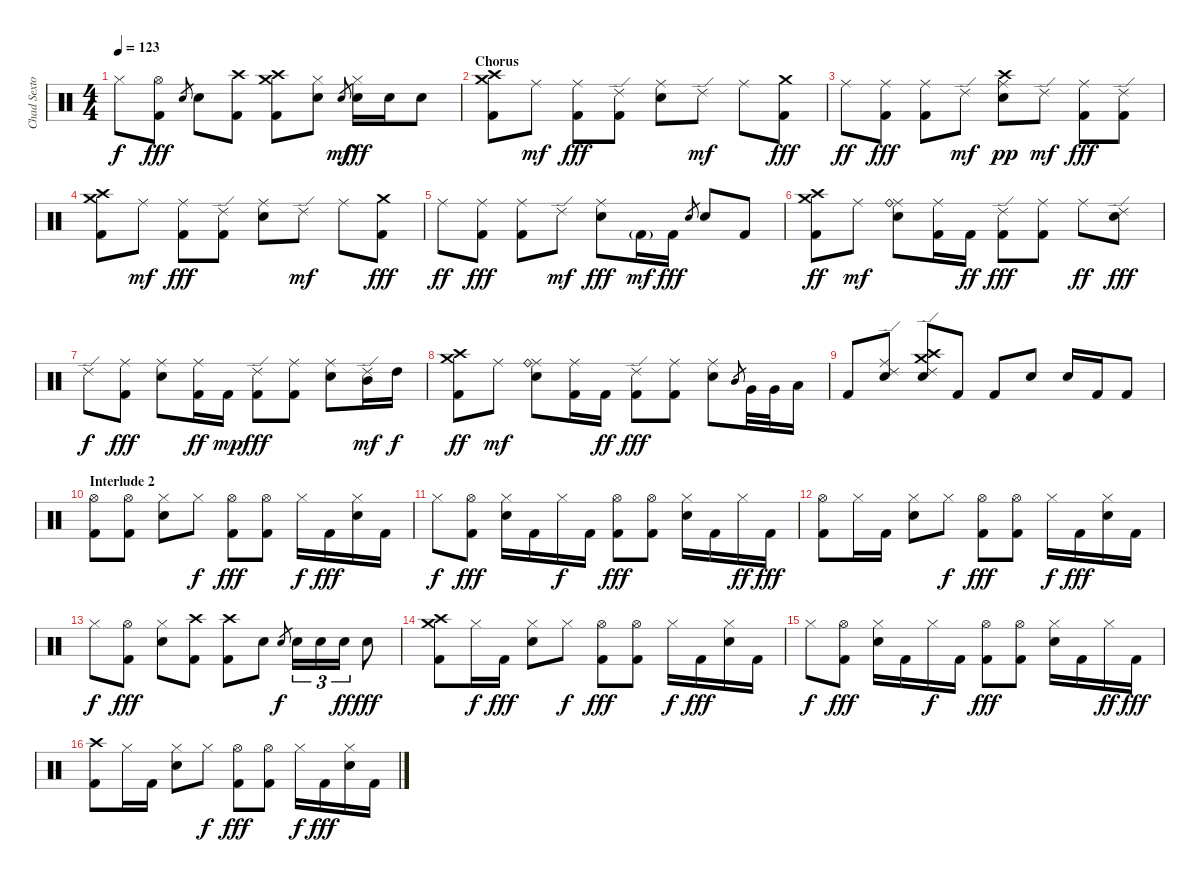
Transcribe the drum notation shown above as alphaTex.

\track ("Chad Sexton (Drums)" "Chad Sexto") {instrument percussion}
\staff {score}
\articulation defaults
\ts (4 4)
\tempo 123
\clef neutral
\ks c "Hi-Hat (closed)".8{dy f}
("Hi-Hat (open)" "Kick (hit) 2").8{dy fff} "Electric Snare (hit)".8{gr} "Electric Snare (hit)".8 ("Crash high (hit)" "Kick (hit) 2").8 ("Crash high (hit)" "Kick (hit) 2" "Crash medium (hit)").8 ("Hi-Hat (closed)" "Electric Snare (hit)").8 "Electric Snare (hit)".8{gr dy mf} ("Hi-Hat (closed)" "Electric Snare (hit)").16{dy fff} "Electric Snare (hit)".16 "Electric Snare (hit)".8 |
\section ("" "Chorus")
("Crash high (hit)" "Kick (hit) 2" "Crash medium (hit)").8{volume 13} "Ride (middle)".8{dy mf} ("Ride (middle)" "Kick (hit) 2").8{dy fff} ("Ride (edge) 2" "Kick (hit) 2").8 ("Ride (middle)" "Electric Snare (hit)").8 "Ride (edge) 2".8{dy mf} "Ride (middle)".8 ("Crash medium (hit)" "Kick (hit) 2").8{dy fff} |
"Ride (middle)".8{dy ff} ("Ride (middle)" "Kick (hit) 2").8{dy fff} ("Ride (middle)" "Kick (hit) 2").8 "Ride (edge) 2".8{dy mf} ("Ride (middle)" "Electric Snare (hit)" "Crash high (hit)").8{dy pp} "Ride (edge) 2".8{dy mf} ("Ride (middle)" "Kick (hit) 2").8{dy fff} ("Ride (edge) 2" "Kick (hit) 2").8 |
("Crash high (hit)" "Kick (hit) 2" "Crash medium (hit)").8 "Ride (middle)".8{dy mf} ("Ride (middle)" "Kick (hit) 2").8{dy fff} ("Ride (edge) 2" "Kick (hit) 2").8 ("Ride (middle)" "Electric Snare (hit)").8 "Ride (edge) 2".8{dy mf} "Ride (middle)".8 ("Crash medium (hit)" "Kick (hit) 2").8{dy fff} |
"Ride (middle)".8{dy ff} ("Ride (middle)" "Kick (hit) 2").8{dy fff} ("Ride (middle)" "Kick (hit) 2").8 "Ride (edge) 2".8{dy mf} ("Ride (middle)" "Electric Snare (hit)").8{dy fff} "Kick (hit) 2"{g}.16{dy mf} "Kick (hit) 2".16{dy fff} "Electric Snare (hit)".8{gr} "Electric Snare (hit)".8 "Kick (hit) 2".8 |
("Crash medium (hit)" "Kick (hit) 2" "Crash high (hit)").8{dy ff} "Ride (middle)".8{dy mf} ("Ride (middle)" "Electric Snare (hit)" "Ride (bell)").8 ("Ride (middle)" "Kick (hit) 2").16 "Kick (hit) 2".16{dy ff} ("Ride (edge) 2" "Kick (hit) 2").8{dy fff} ("Ride (middle)" "Kick (hit) 2").8 "Ride (middle)".8{dy ff} ("Ride (edge) 2" "Electric Snare (hit)").8{dy fff} |
"Ride (edge) 2".8{dy f} ("Ride (middle)" "Kick (hit) 2").8{dy fff} ("Ride (middle)" "Electric Snare (hit)").8 ("Ride (middle)" "Kick (hit) 2").16{dy ff} "Kick (hit) 2".16{dy mp} ("Ride (edge) 2" "Kick (hit) 2").8{dy fff} ("Ride (middle)" "Kick (hit) 2").8 ("Ride (middle)" "Electric Snare (hit)").8 ("Ride (edge) 2" "Mid Tom (hit)").16{dy mf} "High Tom (hit)".16{dy f} |
("Crash medium (hit)" "Kick (hit) 2" "Crash high (hit)").8{dy ff} "Ride (middle)".8{dy mf} ("Ride (middle)" "Electric Snare (hit)" "Ride (bell)").8 ("Ride (middle)" "Kick (hit) 2").16 "Kick (hit) 2".16{dy ff} ("Ride (edge) 2" "Kick (hit) 2").8{dy fff} ("Ride (middle)" "Kick (hit) 2").8 ("Ride (middle)" "Electric Snare (hit)").8 "Mid Tom (hit)".8{gr} "Very Low Tom (hit)".32 "Very Low Tom (hit)".32 "Low Tom (hit)".16 |
"Kick (hit) 2".8 ("Ride (middle)" "Electric Snare (hit)" "Ride (edge) 2").8 ("Crash medium (hit)" "Electric Snare (hit)" "Ride (edge) 2" "Crash high (hit)").8 "Kick (hit) 2".8 "Kick (hit) 2".8 "Electric Snare (hit)".8 "Electric Snare (hit)".16 "Kick (hit) 2".16 "Kick (hit) 2".8 |
\section ("" "Interlude 2")
("Hi-Hat (open)" "Kick (hit) 2").8 ("Hi-Hat (open)" "Kick (hit) 2").8 ("Hi-Hat (closed)" "Electric Snare (hit)").8 "Hi-Hat (closed)".8{dy f} ("Hi-Hat (open)" "Kick (hit) 2").8{dy fff} ("Hi-Hat (open)" "Kick (hit) 2").8 "Hi-Hat (closed)".16{dy f} "Kick (hit) 2".16{dy fff} ("Hi-Hat (closed)" "Electric Snare (hit)").16 "Kick (hit) 2".16 |
"Hi-Hat (closed)".8{dy f} ("Hi-Hat (open)" "Kick (hit) 2").8{dy fff} ("Hi-Hat (closed)" "Electric Snare (hit)").16 "Kick (hit) 2".16 "Hi-Hat (closed)".16{dy f} "Kick (hit) 2".16 ("Hi-Hat (open)" "Kick (hit) 2").8{dy fff} ("Hi-Hat (open)" "Kick (hit) 2").8 ("Hi-Hat (closed)" "Electric Snare (hit)").16 "Kick (hit) 2".16 "Hi-Hat (closed)".16{dy ff} "Kick (hit) 2".16{dy fff} |
("Hi-Hat (open)" "Kick (hit) 2").8 "Hi-Hat (closed)".16 "Kick (hit) 2".16 ("Hi-Hat (closed)" "Electric Snare (hit)").8 "Hi-Hat (closed)".8{dy f} ("Hi-Hat (open)" "Kick (hit) 2").8{dy fff} ("Hi-Hat (open)" "Kick (hit) 2").8 "Hi-Hat (closed)".16{dy f} "Kick (hit) 2".16{dy fff} ("Hi-Hat (closed)" "Electric Snare (hit)").16 "Kick (hit) 2".16 |
"Hi-Hat (closed)".8{dy f} ("Hi-Hat (open)" "Kick (hit) 2").8{dy fff} ("Hi-Hat (closed)" "Electric Snare (hit)").8 ("Crash high (hit)" "Kick (hit) 2").8 ("Crash high (hit)" "Kick (hit) 2").8 "Electric Snare (hit)".8 "Electric Snare (hit)".8{gr dy f} "Electric Snare (hit)".16{tu (3 2)} "Electric Snare (hit)".16{tu (3 2)} "Electric Snare (hit)".16{tu (3 2) dy ff} "Electric Snare (hit)".8{dy fff} |
\section ("" "")
("Crash medium (hit)" "Kick (hit) 2" "Crash high (hit)").8 "Hi-Hat (closed)".16{dy f} "Kick (hit) 2".16{dy fff} ("Hi-Hat (closed)" "Electric Snare (hit)").8 "Hi-Hat (closed)".8{dy f} ("Hi-Hat (open)" "Kick (hit) 2").8{dy fff} ("Hi-Hat (open)" "Kick (hit) 2").8 "Hi-Hat (closed)".16{dy f} "Kick (hit) 2".16{dy fff} ("Hi-Hat (closed)" "Electric Snare (hit)").16 "Kick (hit) 2".16 |
"Hi-Hat (closed)".8{dy f} ("Hi-Hat (open)" "Kick (hit) 2").8{dy fff} ("Hi-Hat (closed)" "Electric Snare (hit)").16 "Kick (hit) 2".16 "Hi-Hat (closed)".16{dy f} "Kick (hit) 2".16 ("Hi-Hat (open)" "Kick (hit) 2").8{dy fff} ("Hi-Hat (open)" "Kick (hit) 2").8 ("Hi-Hat (closed)" "Electric Snare (hit)").16 "Kick (hit) 2".16 "Hi-Hat (closed)".16{dy ff} "Kick (hit) 2".16{dy fff} |
("Crash high (hit)" "Kick (hit) 2").8 "Hi-Hat (closed)".16 "Kick (hit) 2".16 ("Hi-Hat (closed)" "Electric Snare (hit)").8 "Hi-Hat (closed)".8{dy f} ("Hi-Hat (open)" "Kick (hit) 2").8{dy fff} ("Hi-Hat (open)" "Kick (hit) 2").8 "Hi-Hat (closed)".16{dy f} "Kick (hit) 2".16{dy fff} ("Hi-Hat (closed)" "Electric Snare (hit)").16 "Kick (hit) 2".16
